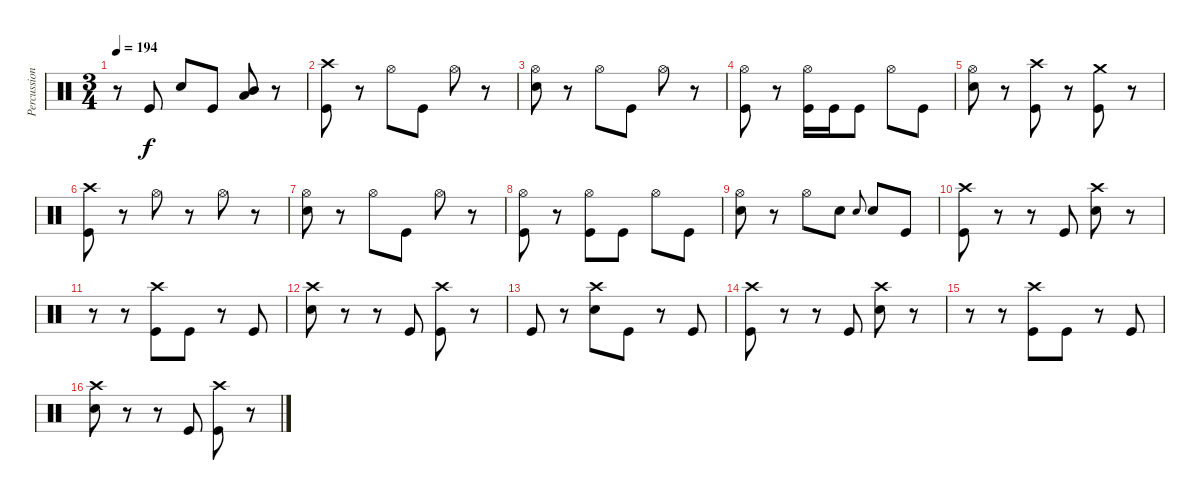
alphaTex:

\track ("Percussion" "Percussion") {instrument percussion}
\staff {score}
\articulation defaults
\ts (3 4)
\tempo 194
\clef neutral
\ks c
r.8{dy f} "Kick (hit)".8 "Snare (hit) 2".8 "Kick (hit)".8 ("Low Tom (hit)" "Mid Tom (hit)").8 r.8 |
("Crash high (hit)" "Kick (hit)").8 r.8 "Hi-Hat (open)".8 "Kick (hit)".8 "Hi-Hat (open)".8 r.8 |
("Hi-Hat (open)" "Snare (hit) 2").8 r.8 "Hi-Hat (open)".8 "Kick (hit)".8 "Hi-Hat (open)".8 r.8 |
("Hi-Hat (open)" "Kick (hit)").8 r.8 ("Hi-Hat (open)" "Kick (hit)").16 "Kick (hit)".16 "Kick (hit)".8 "Hi-Hat (open)".8 "Kick (hit)".8 |
("Snare (hit) 2" "Hi-Hat (open)").8 r.8 ("Crash high (hit)" "Kick (hit)").8 r.8 ("Crash medium (hit)" "Kick (hit)").8 r.8 |
("Crash high (hit)" "Kick (hit)").8 r.8 "Hi-Hat (open)".8 r.8 "Hi-Hat (open)".8 r.8 |
("Hi-Hat (open)" "Snare (hit) 2").8 r.8 "Hi-Hat (open)".8 "Kick (hit)".8 "Hi-Hat (open)".8 r.8 |
("Hi-Hat (open)" "Kick (hit)").8 r.8 ("Hi-Hat (open)" "Kick (hit)").8 "Kick (hit)".8 "Hi-Hat (open)".8 "Kick (hit)".8 |
("Hi-Hat (open)" "Snare (hit) 2").8 r.8 "Hi-Hat (open)".8 "Snare (hit) 2".8 "Snare (hit) 2".8{gr onbeat} "Snare (hit) 2".8 "Kick (hit)".8 |
("Crash high (hit)" "Kick (hit)").8 r.8 r.8 "Kick (hit)".8 ("Snare (hit) 2" "Crash high (hit)").8 r.8 |
r.8 r.8 ("Crash high (hit)" "Kick (hit)").8 "Kick (hit)".8 r.8 "Kick (hit)".8 |
("Snare (hit) 2" "Crash high (hit)").8 r.8 r.8 "Kick (hit)".8 ("Crash high (hit)" "Kick (hit)").8 r.8 |
"Kick (hit)".8 r.8 ("Snare (hit) 2" "Crash high (hit)").8 "Kick (hit)".8 r.8 "Kick (hit)".8 |
("Crash high (hit)" "Kick (hit)").8 r.8 r.8 "Kick (hit)".8 ("Snare (hit) 2" "Crash high (hit)").8 r.8 |
r.8 r.8 ("Crash high (hit)" "Kick (hit)").8 "Kick (hit)".8 r.8 "Kick (hit)".8 |
("Snare (hit) 2" "Crash high (hit)").8 r.8 r.8 "Kick (hit)".8 ("Crash high (hit)" "Kick (hit)").8 r.8
